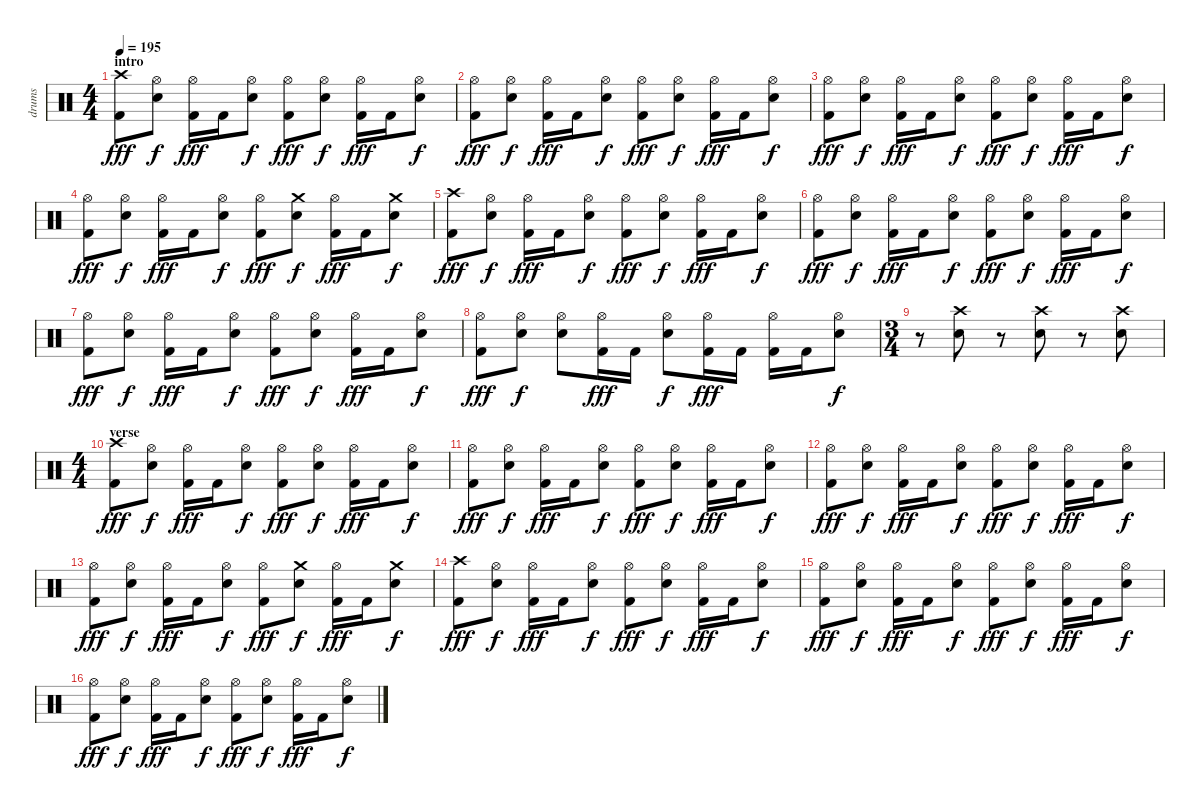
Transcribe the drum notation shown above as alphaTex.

\track ("drums" "drums") {instrument percussion}
\staff {score}
\articulation defaults
\ts (4 4)
\section ("" "intro")
\tempo 195
\clef neutral
\ks c
("Crash high (hit)" "Kick (hit) 2").8{dy fff} ("Hi-Hat (open)" "Snare (hit) 2").8{dy f} ("Hi-Hat (open)" "Kick (hit) 2").16{dy fff} "Kick (hit) 2".16 ("Hi-Hat (open)" "Snare (hit) 2").8{dy f} ("Hi-Hat (open)" "Kick (hit) 2").8{dy fff} ("Hi-Hat (open)" "Snare (hit) 2").8{dy f} ("Hi-Hat (open)" "Kick (hit) 2").16{dy fff} "Kick (hit) 2".16 ("Hi-Hat (open)" "Snare (hit) 2").8{dy f} |
("Hi-Hat (open)" "Kick (hit) 2").8{dy fff} ("Hi-Hat (open)" "Snare (hit) 2").8{dy f} ("Hi-Hat (open)" "Kick (hit) 2").16{dy fff} "Kick (hit) 2".16 ("Hi-Hat (open)" "Snare (hit) 2").8{dy f} ("Hi-Hat (open)" "Kick (hit) 2").8{dy fff} ("Hi-Hat (open)" "Snare (hit) 2").8{dy f} ("Hi-Hat (open)" "Kick (hit) 2").16{dy fff} "Kick (hit) 2".16 ("Hi-Hat (open)" "Snare (hit) 2").8{dy f} |
("Hi-Hat (open)" "Kick (hit) 2").8{dy fff} ("Hi-Hat (open)" "Snare (hit) 2").8{dy f} ("Hi-Hat (open)" "Kick (hit) 2").16{dy fff} "Kick (hit) 2".16 ("Hi-Hat (open)" "Snare (hit) 2").8{dy f} ("Hi-Hat (open)" "Kick (hit) 2").8{dy fff} ("Hi-Hat (open)" "Snare (hit) 2").8{dy f} ("Hi-Hat (open)" "Kick (hit) 2").16{dy fff} "Kick (hit) 2".16 ("Hi-Hat (open)" "Snare (hit) 2").8{dy f} |
("Hi-Hat (open)" "Kick (hit) 2").8{dy fff} ("Hi-Hat (open)" "Snare (hit) 2").8{dy f} ("Hi-Hat (open)" "Kick (hit) 2").16{dy fff} "Kick (hit) 2".16 ("Hi-Hat (open)" "Snare (hit) 2").8{dy f} ("Hi-Hat (open)" "Kick (hit) 2").8{dy fff} ("Crash medium (hit)" "Snare (hit) 2").8{dy f} ("Hi-Hat (open)" "Kick (hit) 2").16{dy fff} "Kick (hit) 2".16 ("Crash medium (hit)" "Snare (hit) 2").8{dy f} |
("Crash high (hit)" "Kick (hit) 2").8{dy fff} ("Hi-Hat (open)" "Snare (hit) 2").8{dy f} ("Hi-Hat (open)" "Kick (hit) 2").16{dy fff} "Kick (hit) 2".16 ("Hi-Hat (open)" "Snare (hit) 2").8{dy f} ("Hi-Hat (open)" "Kick (hit) 2").8{dy fff} ("Hi-Hat (open)" "Snare (hit) 2").8{dy f} ("Hi-Hat (open)" "Kick (hit) 2").16{dy fff} "Kick (hit) 2".16 ("Hi-Hat (open)" "Snare (hit) 2").8{dy f} |
("Hi-Hat (open)" "Kick (hit) 2").8{dy fff} ("Hi-Hat (open)" "Snare (hit) 2").8{dy f} ("Hi-Hat (open)" "Kick (hit) 2").16{dy fff} "Kick (hit) 2".16 ("Hi-Hat (open)" "Snare (hit) 2").8{dy f} ("Hi-Hat (open)" "Kick (hit) 2").8{dy fff} ("Hi-Hat (open)" "Snare (hit) 2").8{dy f} ("Hi-Hat (open)" "Kick (hit) 2").16{dy fff} "Kick (hit) 2".16 ("Hi-Hat (open)" "Snare (hit) 2").8{dy f} |
("Hi-Hat (open)" "Kick (hit) 2").8{dy fff} ("Hi-Hat (open)" "Snare (hit) 2").8{dy f} ("Hi-Hat (open)" "Kick (hit) 2").16{dy fff} "Kick (hit) 2".16 ("Hi-Hat (open)" "Snare (hit) 2").8{dy f} ("Hi-Hat (open)" "Kick (hit) 2").8{dy fff} ("Hi-Hat (open)" "Snare (hit) 2").8{dy f} ("Hi-Hat (open)" "Kick (hit) 2").16{dy fff} "Kick (hit) 2".16 ("Hi-Hat (open)" "Snare (hit) 2").8{dy f} |
("Hi-Hat (open)" "Kick (hit) 2").8{dy fff} ("Hi-Hat (open)" "Snare (hit) 2").8{dy f} ("Hi-Hat (open)" "Snare (hit) 2").8 ("Hi-Hat (open)" "Kick (hit) 2").16{dy fff} "Kick (hit) 2".16 ("Hi-Hat (open)" "Snare (hit) 2").8{dy f} ("Hi-Hat (open)" "Kick (hit) 2").16{dy fff} "Kick (hit) 2".16 ("Hi-Hat (open)" "Kick (hit) 2").16 "Kick (hit) 2".16 ("Hi-Hat (open)" "Snare (hit) 2").8{dy f} |
\ts (3 4)
r.8 ("Crash high (hit)" "Snare (hit) 2").8 r.8 ("Crash high (hit)" "Snare (hit) 2").8 r.8 ("Crash high (hit)" "Snare (hit) 2").8 |
\ts (4 4)
\section ("" "verse")
("Crash high (hit)" "Kick (hit) 2").8{dy fff} ("Hi-Hat (open)" "Snare (hit) 2").8{dy f} ("Hi-Hat (open)" "Kick (hit) 2").16{dy fff} "Kick (hit) 2".16 ("Hi-Hat (open)" "Snare (hit) 2").8{dy f} ("Hi-Hat (open)" "Kick (hit) 2").8{dy fff} ("Hi-Hat (open)" "Snare (hit) 2").8{dy f} ("Hi-Hat (open)" "Kick (hit) 2").16{dy fff} "Kick (hit) 2".16 ("Hi-Hat (open)" "Snare (hit) 2").8{dy f} |
("Hi-Hat (open)" "Kick (hit) 2").8{dy fff} ("Hi-Hat (open)" "Snare (hit) 2").8{dy f} ("Hi-Hat (open)" "Kick (hit) 2").16{dy fff} "Kick (hit) 2".16 ("Hi-Hat (open)" "Snare (hit) 2").8{dy f} ("Hi-Hat (open)" "Kick (hit) 2").8{dy fff} ("Hi-Hat (open)" "Snare (hit) 2").8{dy f} ("Hi-Hat (open)" "Kick (hit) 2").16{dy fff} "Kick (hit) 2".16 ("Hi-Hat (open)" "Snare (hit) 2").8{dy f} |
("Hi-Hat (open)" "Kick (hit) 2").8{dy fff} ("Hi-Hat (open)" "Snare (hit) 2").8{dy f} ("Hi-Hat (open)" "Kick (hit) 2").16{dy fff} "Kick (hit) 2".16 ("Hi-Hat (open)" "Snare (hit) 2").8{dy f} ("Hi-Hat (open)" "Kick (hit) 2").8{dy fff} ("Hi-Hat (open)" "Snare (hit) 2").8{dy f} ("Hi-Hat (open)" "Kick (hit) 2").16{dy fff} "Kick (hit) 2".16 ("Hi-Hat (open)" "Snare (hit) 2").8{dy f} |
("Hi-Hat (open)" "Kick (hit) 2").8{dy fff} ("Hi-Hat (open)" "Snare (hit) 2").8{dy f} ("Hi-Hat (open)" "Kick (hit) 2").16{dy fff} "Kick (hit) 2".16 ("Hi-Hat (open)" "Snare (hit) 2").8{dy f} ("Hi-Hat (open)" "Kick (hit) 2").8{dy fff} ("Crash medium (hit)" "Snare (hit) 2").8{dy f} ("Hi-Hat (open)" "Kick (hit) 2").16{dy fff} "Kick (hit) 2".16 ("Crash medium (hit)" "Snare (hit) 2").8{dy f} |
("Crash high (hit)" "Kick (hit) 2").8{dy fff} ("Hi-Hat (open)" "Snare (hit) 2").8{dy f} ("Hi-Hat (open)" "Kick (hit) 2").16{dy fff} "Kick (hit) 2".16 ("Hi-Hat (open)" "Snare (hit) 2").8{dy f} ("Hi-Hat (open)" "Kick (hit) 2").8{dy fff} ("Hi-Hat (open)" "Snare (hit) 2").8{dy f} ("Hi-Hat (open)" "Kick (hit) 2").16{dy fff} "Kick (hit) 2".16 ("Hi-Hat (open)" "Snare (hit) 2").8{dy f} |
("Hi-Hat (open)" "Kick (hit) 2").8{dy fff} ("Hi-Hat (open)" "Snare (hit) 2").8{dy f} ("Hi-Hat (open)" "Kick (hit) 2").16{dy fff} "Kick (hit) 2".16 ("Hi-Hat (open)" "Snare (hit) 2").8{dy f} ("Hi-Hat (open)" "Kick (hit) 2").8{dy fff} ("Hi-Hat (open)" "Snare (hit) 2").8{dy f} ("Hi-Hat (open)" "Kick (hit) 2").16{dy fff} "Kick (hit) 2".16 ("Hi-Hat (open)" "Snare (hit) 2").8{dy f} |
("Hi-Hat (open)" "Kick (hit) 2").8{dy fff} ("Hi-Hat (open)" "Snare (hit) 2").8{dy f} ("Hi-Hat (open)" "Kick (hit) 2").16{dy fff} "Kick (hit) 2".16 ("Hi-Hat (open)" "Snare (hit) 2").8{dy f} ("Hi-Hat (open)" "Kick (hit) 2").8{dy fff} ("Hi-Hat (open)" "Snare (hit) 2").8{dy f} ("Hi-Hat (open)" "Kick (hit) 2").16{dy fff} "Kick (hit) 2".16 ("Hi-Hat (open)" "Snare (hit) 2").8{dy f}
